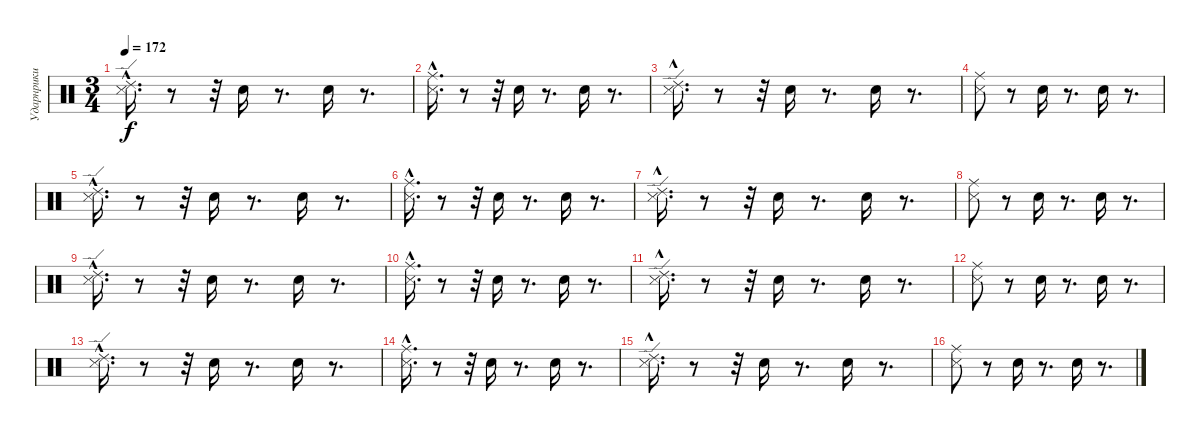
\track ("Ударнрики" "Ударнрики") {instrument percussion}
\staff {score}
\articulation defaults
\ts (3 4)
\tempo 172
\clef neutral
\ks c
("Ride (edge) 2"{hac} "Metronome (hit)"{hac}).16{d dy f} r.8 r.32 "Electric Snare (hit)".16 r.8{d} "Electric Snare (hit)".16 r.8{d} |
("Ride (middle)" "Metronome (hit)"{hac}).16{d} r.8 r.32 "Electric Snare (hit)".16 r.8{d} "Electric Snare (hit)".16 r.8{d} |
("Ride (edge) 2" "Metronome (hit)"{hac}).16{d} r.8 r.32 "Electric Snare (hit)".16 r.8{d} "Electric Snare (hit)".16 r.8{d} |
("Ride (middle)" "Metronome (hit)").8 r.8 "Electric Snare (hit)".16 r.8{d} "Electric Snare (hit)".16 r.8{d} |
("Ride (edge) 2"{hac} "Metronome (hit)"{hac}).16{d} r.8 r.32 "Electric Snare (hit)".16 r.8{d} "Electric Snare (hit)".16 r.8{d} |
("Ride (middle)" "Metronome (hit)"{hac}).16{d} r.8 r.32 "Electric Snare (hit)".16 r.8{d} "Electric Snare (hit)".16 r.8{d} |
("Ride (edge) 2" "Metronome (hit)"{hac}).16{d} r.8 r.32 "Electric Snare (hit)".16 r.8{d} "Electric Snare (hit)".16 r.8{d} |
("Ride (middle)" "Metronome (hit)").8 r.8 "Electric Snare (hit)".16 r.8{d} "Electric Snare (hit)".16 r.8{d} |
("Ride (edge) 2"{hac} "Metronome (hit)"{hac}).16{d} r.8 r.32 "Electric Snare (hit)".16 r.8{d} "Electric Snare (hit)".16 r.8{d} |
("Ride (middle)" "Metronome (hit)"{hac}).16{d} r.8 r.32 "Electric Snare (hit)".16 r.8{d} "Electric Snare (hit)".16 r.8{d} |
("Ride (edge) 2" "Metronome (hit)"{hac}).16{d} r.8 r.32 "Electric Snare (hit)".16 r.8{d} "Electric Snare (hit)".16 r.8{d} |
("Ride (middle)" "Metronome (hit)").8 r.8 "Electric Snare (hit)".16 r.8{d} "Electric Snare (hit)".16 r.8{d} |
("Ride (edge) 2"{hac} "Metronome (hit)"{hac}).16{d} r.8 r.32 "Electric Snare (hit)".16 r.8{d} "Electric Snare (hit)".16 r.8{d} |
("Ride (middle)" "Metronome (hit)"{hac}).16{d} r.8 r.32 "Electric Snare (hit)".16 r.8{d} "Electric Snare (hit)".16 r.8{d} |
("Ride (edge) 2" "Metronome (hit)"{hac}).16{d} r.8 r.32 "Electric Snare (hit)".16 r.8{d} "Electric Snare (hit)".16 r.8{d} |
("Ride (middle)" "Metronome (hit)").8 r.8 "Electric Snare (hit)".16 r.8{d} "Electric Snare (hit)".16 r.8{d}
